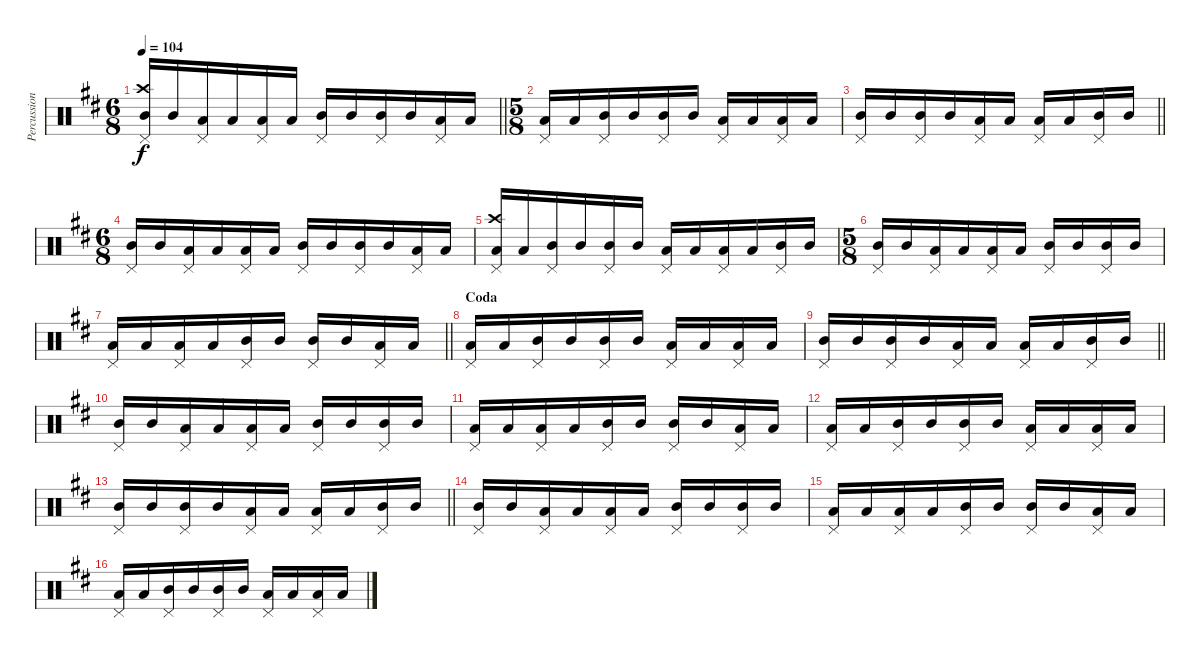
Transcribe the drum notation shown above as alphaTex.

\track ("Percussion" "Percussion") {instrument percussion}
\staff {score}
\articulation defaults
\ts (6 8)
\tempo 104
\clef neutral
\barLineRight lightlight
\ks d
("Pedal Hi-Hat (hit)" "Crash high (hit)" "Mid Tom (hit)").16{dy f} "Mid Tom (hit)".16 ("Pedal Hi-Hat (hit)" "Low Tom (hit)").16 "Low Tom (hit)".16 ("Pedal Hi-Hat (hit)" "Low Tom (hit)").16 "Low Tom (hit)".16 ("Pedal Hi-Hat (hit)" "Mid Tom (hit)").16 "Mid Tom (hit)".16 ("Pedal Hi-Hat (hit)" "Mid Tom (hit)").16 "Mid Tom (hit)".16 ("Pedal Hi-Hat (hit)" "Low Tom (hit)").16 "Low Tom (hit)".16 |
\ts (5 8)
("Pedal Hi-Hat (hit)" "Low Tom (hit)").16 "Low Tom (hit)".16 ("Pedal Hi-Hat (hit)" "Mid Tom (hit)").16 "Mid Tom (hit)".16 ("Pedal Hi-Hat (hit)" "Mid Tom (hit)").16 "Mid Tom (hit)".16 ("Pedal Hi-Hat (hit)" "Low Tom (hit)").16 "Low Tom (hit)".16 ("Pedal Hi-Hat (hit)" "Low Tom (hit)").16 "Low Tom (hit)".16 |
\barLineRight lightlight
("Pedal Hi-Hat (hit)" "Mid Tom (hit)").16 "Mid Tom (hit)".16 ("Pedal Hi-Hat (hit)" "Mid Tom (hit)").16 "Mid Tom (hit)".16 ("Pedal Hi-Hat (hit)" "Low Tom (hit)").16 "Low Tom (hit)".16 ("Pedal Hi-Hat (hit)" "Low Tom (hit)").16 "Low Tom (hit)".16 ("Pedal Hi-Hat (hit)" "Mid Tom (hit)").16 "Mid Tom (hit)".16 |
\ts (6 8)
("Pedal Hi-Hat (hit)" "Mid Tom (hit)").16 "Mid Tom (hit)".16 ("Pedal Hi-Hat (hit)" "Low Tom (hit)").16 "Low Tom (hit)".16 ("Pedal Hi-Hat (hit)" "Low Tom (hit)").16 "Low Tom (hit)".16 ("Pedal Hi-Hat (hit)" "Mid Tom (hit)").16 "Mid Tom (hit)".16 ("Pedal Hi-Hat (hit)" "Mid Tom (hit)").16 "Mid Tom (hit)".16 ("Pedal Hi-Hat (hit)" "Low Tom (hit)").16 "Low Tom (hit)".16 |
("Pedal Hi-Hat (hit)" "Crash high (hit)" "Low Tom (hit)").16 "Low Tom (hit)".16 ("Pedal Hi-Hat (hit)" "Mid Tom (hit)").16 "Mid Tom (hit)".16 ("Pedal Hi-Hat (hit)" "Mid Tom (hit)").16 "Mid Tom (hit)".16 ("Pedal Hi-Hat (hit)" "Low Tom (hit)").16 "Low Tom (hit)".16 ("Pedal Hi-Hat (hit)" "Low Tom (hit)").16 "Low Tom (hit)".16 ("Pedal Hi-Hat (hit)" "Mid Tom (hit)").16 "Mid Tom (hit)".16 |
\ts (5 8)
("Pedal Hi-Hat (hit)" "Mid Tom (hit)").16 "Mid Tom (hit)".16 ("Pedal Hi-Hat (hit)" "Low Tom (hit)").16 "Low Tom (hit)".16 ("Pedal Hi-Hat (hit)" "Low Tom (hit)").16 "Low Tom (hit)".16 ("Pedal Hi-Hat (hit)" "Mid Tom (hit)").16 "Mid Tom (hit)".16 ("Pedal Hi-Hat (hit)" "Mid Tom (hit)").16 "Mid Tom (hit)".16 |
\barLineRight lightlight
("Pedal Hi-Hat (hit)" "Low Tom (hit)").16 "Low Tom (hit)".16 ("Pedal Hi-Hat (hit)" "Low Tom (hit)").16 "Low Tom (hit)".16 ("Pedal Hi-Hat (hit)" "Mid Tom (hit)").16 "Mid Tom (hit)".16 ("Pedal Hi-Hat (hit)" "Mid Tom (hit)").16 "Mid Tom (hit)".16 ("Pedal Hi-Hat (hit)" "Low Tom (hit)").16 "Low Tom (hit)".16 |
\section ("" "Coda")
("Pedal Hi-Hat (hit)" "Low Tom (hit)").16 "Low Tom (hit)".16 ("Pedal Hi-Hat (hit)" "Mid Tom (hit)").16 "Mid Tom (hit)".16 ("Pedal Hi-Hat (hit)" "Mid Tom (hit)").16 "Mid Tom (hit)".16 ("Pedal Hi-Hat (hit)" "Low Tom (hit)").16 "Low Tom (hit)".16 ("Pedal Hi-Hat (hit)" "Low Tom (hit)").16 "Low Tom (hit)".16 |
\barLineRight lightlight
("Pedal Hi-Hat (hit)" "Mid Tom (hit)").16 "Mid Tom (hit)".16 ("Pedal Hi-Hat (hit)" "Mid Tom (hit)").16 "Mid Tom (hit)".16 ("Pedal Hi-Hat (hit)" "Low Tom (hit)").16 "Low Tom (hit)".16 ("Pedal Hi-Hat (hit)" "Low Tom (hit)").16 "Low Tom (hit)".16 ("Pedal Hi-Hat (hit)" "Mid Tom (hit)").16 "Mid Tom (hit)".16 |
("Pedal Hi-Hat (hit)" "Mid Tom (hit)").16 "Mid Tom (hit)".16 ("Pedal Hi-Hat (hit)" "Low Tom (hit)").16 "Low Tom (hit)".16 ("Pedal Hi-Hat (hit)" "Low Tom (hit)").16 "Low Tom (hit)".16 ("Pedal Hi-Hat (hit)" "Mid Tom (hit)").16 "Mid Tom (hit)".16 ("Pedal Hi-Hat (hit)" "Mid Tom (hit)").16 "Mid Tom (hit)".16 |
("Pedal Hi-Hat (hit)" "Low Tom (hit)").16 "Low Tom (hit)".16 ("Pedal Hi-Hat (hit)" "Low Tom (hit)").16 "Low Tom (hit)".16 ("Pedal Hi-Hat (hit)" "Mid Tom (hit)").16 "Mid Tom (hit)".16 ("Pedal Hi-Hat (hit)" "Mid Tom (hit)").16 "Mid Tom (hit)".16 ("Pedal Hi-Hat (hit)" "Low Tom (hit)").16 "Low Tom (hit)".16 |
("Pedal Hi-Hat (hit)" "Low Tom (hit)").16 "Low Tom (hit)".16 ("Pedal Hi-Hat (hit)" "Mid Tom (hit)").16 "Mid Tom (hit)".16 ("Pedal Hi-Hat (hit)" "Mid Tom (hit)").16 "Mid Tom (hit)".16 ("Pedal Hi-Hat (hit)" "Low Tom (hit)").16 "Low Tom (hit)".16 ("Pedal Hi-Hat (hit)" "Low Tom (hit)").16 "Low Tom (hit)".16 |
\barLineRight lightlight
("Pedal Hi-Hat (hit)" "Mid Tom (hit)").16 "Mid Tom (hit)".16 ("Pedal Hi-Hat (hit)" "Mid Tom (hit)").16 "Mid Tom (hit)".16 ("Pedal Hi-Hat (hit)" "Low Tom (hit)").16 "Low Tom (hit)".16 ("Pedal Hi-Hat (hit)" "Low Tom (hit)").16 "Low Tom (hit)".16 ("Pedal Hi-Hat (hit)" "Mid Tom (hit)").16 "Mid Tom (hit)".16 |
("Pedal Hi-Hat (hit)" "Mid Tom (hit)").16 "Mid Tom (hit)".16 ("Pedal Hi-Hat (hit)" "Low Tom (hit)").16 "Low Tom (hit)".16 ("Pedal Hi-Hat (hit)" "Low Tom (hit)").16 "Low Tom (hit)".16 ("Pedal Hi-Hat (hit)" "Mid Tom (hit)").16 "Mid Tom (hit)".16 ("Pedal Hi-Hat (hit)" "Mid Tom (hit)").16 "Mid Tom (hit)".16 |
("Pedal Hi-Hat (hit)" "Low Tom (hit)").16 "Low Tom (hit)".16 ("Pedal Hi-Hat (hit)" "Low Tom (hit)").16 "Low Tom (hit)".16 ("Pedal Hi-Hat (hit)" "Mid Tom (hit)").16 "Mid Tom (hit)".16 ("Pedal Hi-Hat (hit)" "Mid Tom (hit)").16 "Mid Tom (hit)".16 ("Pedal Hi-Hat (hit)" "Low Tom (hit)").16 "Low Tom (hit)".16 |
("Pedal Hi-Hat (hit)" "Low Tom (hit)").16 "Low Tom (hit)".16 ("Pedal Hi-Hat (hit)" "Mid Tom (hit)").16 "Mid Tom (hit)".16 ("Pedal Hi-Hat (hit)" "Mid Tom (hit)").16 "Mid Tom (hit)".16 ("Pedal Hi-Hat (hit)" "Low Tom (hit)").16 "Low Tom (hit)".16 ("Pedal Hi-Hat (hit)" "Low Tom (hit)").16 "Low Tom (hit)".16
